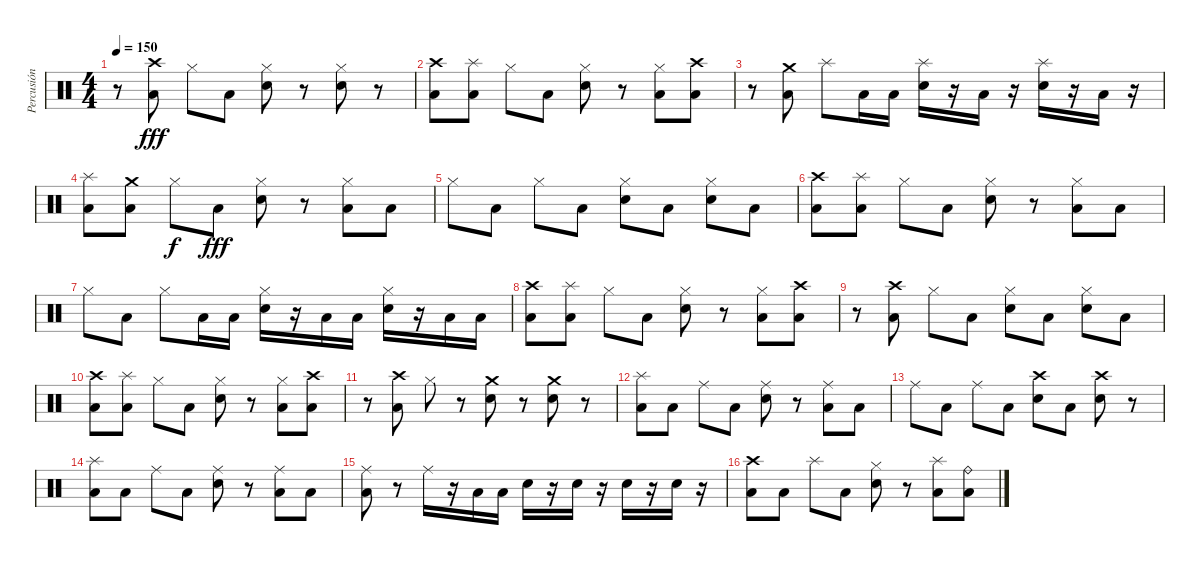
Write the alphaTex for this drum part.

\track ("Percusión" "Percusión") {instrument percussion}
\staff {score}
\articulation defaults
\ts (4 4)
\tempo 150
\clef neutral
\ks c
r.8{dy fff} ("Crash high (hit)" "Low Tom (hit)").8 "Hi-Hat (closed)".8 "Low Tom (hit)".8 ("Hi-Hat (closed)" "Snare (hit) 2").8 r.8 ("Hi-Hat (closed)" "Snare (hit) 2").8 r.8 |
("Crash high (hit)" "Low Tom (hit)").8 ("Splash (hit)" "Low Tom (hit)").8 "Hi-Hat (closed)".8 "Low Tom (hit)".8 ("Hi-Hat (closed)" "Snare (hit) 2").8 r.8 ("Hi-Hat (closed)" "Low Tom (hit)").8 ("Crash high (hit)" "Low Tom (hit)").8 |
r.8 ("Crash medium (hit)" "Low Tom (hit)").8 "Splash (hit)".8 "Low Tom (hit)".16 "Low Tom (hit)".16 ("Splash (hit)" "Snare (hit) 2").16 r.16 "Low Tom (hit)".16 r.16 ("Splash (hit)" "Snare (hit) 2").16 r.16 "Low Tom (hit)".16 r.16 |
("Splash (hit)" "Low Tom (hit)").8 ("Crash medium (hit)" "Low Tom (hit)").8 "Hi-Hat (closed)".8{dy f} "Low Tom (hit)".8{dy fff} ("Hi-Hat (closed)" "Snare (hit) 2").8 r.8 ("Hi-Hat (closed)" "Low Tom (hit)").8 "Low Tom (hit)".8 |
"Hi-Hat (closed)".8 "Low Tom (hit)".8 "Hi-Hat (closed)".8 "Low Tom (hit)".8 ("Hi-Hat (closed)" "Snare (hit) 2").8 "Low Tom (hit)".8 ("Hi-Hat (closed)" "Snare (hit) 2").8 "Low Tom (hit)".8 |
("Crash high (hit)" "Low Tom (hit)").8 ("Splash (hit)" "Low Tom (hit)").8 "Hi-Hat (closed)".8 "Low Tom (hit)".8 ("Hi-Hat (closed)" "Snare (hit) 2").8 r.8 ("Hi-Hat (closed)" "Low Tom (hit)").8 "Low Tom (hit)".8 |
"Hi-Hat (closed)".8 "Low Tom (hit)".8 "Hi-Hat (closed)".8 "Low Tom (hit)".16 "Low Tom (hit)".16 ("Hi-Hat (closed)" "Snare (hit) 2").16 r.16 "Low Tom (hit)".16 "Low Tom (hit)".16 ("Hi-Hat (closed)" "Snare (hit) 2").16 r.16 "Low Tom (hit)".16 "Low Tom (hit)".16 |
("Crash high (hit)" "Low Tom (hit)").8 ("Splash (hit)" "Low Tom (hit)").8 "Hi-Hat (closed)".8 "Low Tom (hit)".8 ("Hi-Hat (closed)" "Snare (hit) 2").8 r.8 ("Hi-Hat (closed)" "Low Tom (hit)").8 ("Crash high (hit)" "Low Tom (hit)").8 |
r.8 ("Crash high (hit)" "Low Tom (hit)").8 "Hi-Hat (closed)".8 "Low Tom (hit)".8 ("Hi-Hat (closed)" "Snare (hit) 2").8 "Low Tom (hit)".8 ("Hi-Hat (closed)" "Snare (hit) 2").8 "Low Tom (hit)".8 |
("Crash high (hit)" "Low Tom (hit)").8 ("Splash (hit)" "Low Tom (hit)").8 "Hi-Hat (closed)".8 "Low Tom (hit)".8 ("Hi-Hat (closed)" "Snare (hit) 2").8 r.8 ("Hi-Hat (closed)" "Low Tom (hit)").8 ("Crash high (hit)" "Low Tom (hit)").8 |
r.8 ("Crash high (hit)" "Low Tom (hit)").8 "Hi-Hat (closed)".8 r.8 ("Crash medium (hit)" "Snare (hit) 2").8 r.8 ("Crash medium (hit)" "Snare (hit) 2").8 r.8 |
("Splash (hit)" "Low Tom (hit)").8 "Low Tom (hit)".8 "Ride (middle)".8 "Low Tom (hit)".8 ("Ride (middle)" "Snare (hit) 2").8 r.8 ("Ride (middle)" "Low Tom (hit)").8 "Low Tom (hit)".8 |
"Ride (middle)".8 "Low Tom (hit)".8 "Ride (middle)".8 "Low Tom (hit)".8 ("Crash high (hit)" "Snare (hit) 2").8 "Low Tom (hit)".8 ("Crash high (hit)" "Snare (hit) 2").8 r.8 |
("Splash (hit)" "Low Tom (hit)").8 "Low Tom (hit)".8 "Ride (middle)".8 "Low Tom (hit)".8 ("Ride (middle)" "Snare (hit) 2").8 r.8 ("Ride (middle)" "Low Tom (hit)").8 "Low Tom (hit)".8 |
("Ride (middle)" "Low Tom (hit)").8 r.8 "Ride (middle)".16 r.16 "Low Tom (hit)".16 "Low Tom (hit)".16 "Snare (hit) 2".16 r.16 "Snare (hit) 2".16 r.16 "Snare (hit) 2".16 r.16 "Snare (hit) 2".16 r.16 |
("Crash high (hit)" "Low Tom (hit)").8 "Low Tom (hit)".8 "Splash (hit)".8 "Low Tom (hit)".8 ("Hi-Hat (closed)" "Snare (hit) 2").8 r.8 ("Splash (hit)" "Low Tom (hit)").8 ("Ride (bell)" "Low Tom (hit)").8
